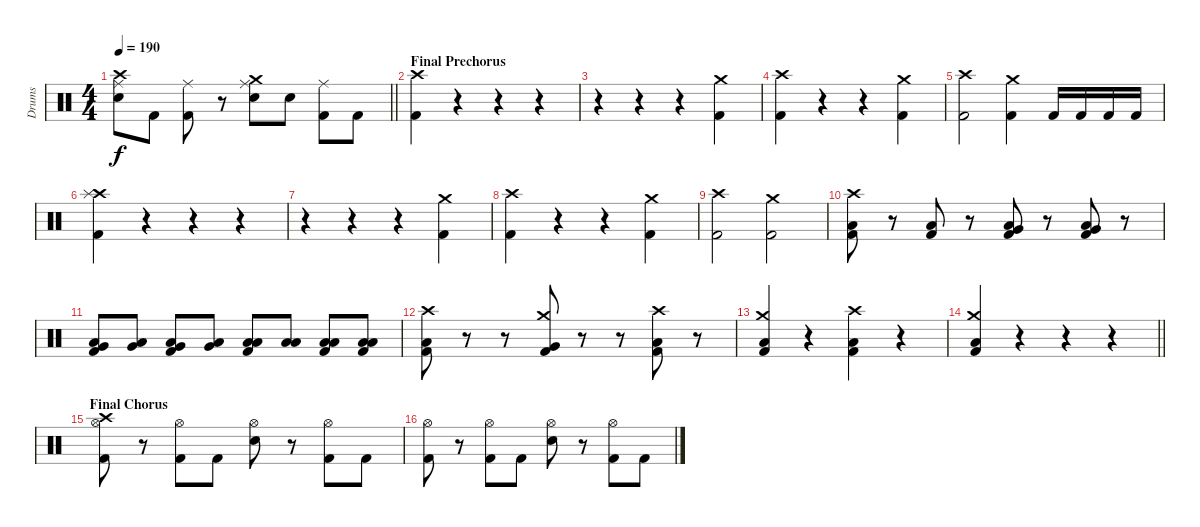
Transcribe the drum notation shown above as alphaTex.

\track ("Drums" "Drums") {instrument percussion}
\staff {score}
\articulation defaults
\ts (4 4)
\tempo 190
\clef neutral
\barLineRight lightlight
\ks c
("Crash high (hit)" "Ride (middle)" "Snare (hit) 2").8{dy f} "Kick (hit) 2".8 ("Ride (middle)" "Kick (hit) 2").8 r.8 ("Crash medium (hit)" "Ride (middle)" "Snare (hit) 2").8 "Snare (hit) 2".8 ("Ride (middle)" "Kick (hit) 2").8 "Kick (hit) 2".8 |
\section ("" "Final Prechorus")
("Crash high (hit)" "Kick (hit) 2").4 r.4 r.4 r.4 |
r.4 r.4 r.4 ("Crash medium (hit)" "Kick (hit) 2").4 |
("Crash high (hit)" "Kick (hit) 2").4 r.4 r.4 ("Crash medium (hit)" "Kick (hit) 2").4 |
("Crash high (hit)" "Kick (hit) 2").2 ("Crash medium (hit)" "Kick (hit) 2").4 "Kick (hit) 2".16 "Kick (hit) 2".16 "Kick (hit) 2".16 "Kick (hit) 2".16 |
("Crash high (hit)" "Splash (hit)" "Kick (hit) 2").4 r.4 r.4 r.4 |
r.4 r.4 r.4 ("Crash medium (hit)" "Kick (hit) 2").4 |
("Crash high (hit)" "Kick (hit) 2").4 r.4 r.4 ("Crash medium (hit)" "Kick (hit) 2").4 |
("Crash high (hit)" "Kick (hit) 2").2 ("Crash medium (hit)" "Kick (hit) 2").2 |
("Crash high (hit)" "Low Floor Tom (hit)" "Kick (hit) 2").8 r.8 ("Low Floor Tom (hit)" "Kick (hit) 2").8 r.8 ("Very Low Tom (hit)" "Low Floor Tom (hit)" "Kick (hit) 2").8 r.8 ("Very Low Tom (hit)" "Low Floor Tom (hit)" "Kick (hit) 2").8 r.8 |
("Very Low Tom (hit)" "Low Floor Tom (hit)" "Kick (hit) 2").8 ("Very Low Tom (hit)" "Low Floor Tom (hit)").8 ("Very Low Tom (hit)" "Low Floor Tom (hit)" "Kick (hit) 2").8 ("Very Low Tom (hit)" "Low Floor Tom (hit)").8 ("Low Tom (hit)" "Low Floor Tom (hit)" "Kick (hit) 2").8 ("Low Tom (hit)" "Low Floor Tom (hit)").8 ("Low Tom (hit)" "Low Floor Tom (hit)" "Kick (hit) 2").8 ("Low Tom (hit)" "Low Floor Tom (hit)" "Kick (hit) 2").8 |
("Crash high (hit)" "Low Tom (hit)" "Kick (hit) 2").8 r.8 r.8 ("Crash medium (hit)" "Very Low Tom (hit)" "Kick (hit) 2").8 r.8 r.8 ("Crash high (hit)" "Low Floor Tom (hit)" "Kick (hit) 2").8 r.8 |
("Crash medium (hit)" "Low Floor Tom (hit)" "Kick (hit) 2").4 r.4 ("Crash high (hit)" "Low Floor Tom (hit)" "Kick (hit) 2").4 r.4 |
\barLineRight lightlight
("Crash medium (hit)" "Low Floor Tom (hit)" "Kick (hit) 2").4 r.4 r.4 r.4 |
\section ("" "Final Chorus")
("Crash high (hit)" "Hi-Hat (open)" "Kick (hit) 2").8 r.8 ("Hi-Hat (open)" "Kick (hit) 2").8 "Kick (hit) 2".8 ("Hi-Hat (open)" "Snare (hit) 2").8 r.8 ("Hi-Hat (open)" "Kick (hit) 2").8 "Kick (hit) 2".8 |
("Hi-Hat (open)" "Kick (hit) 2").8 r.8 ("Hi-Hat (open)" "Kick (hit) 2").8 "Kick (hit) 2".8 ("Hi-Hat (open)" "Snare (hit) 2").8 r.8 ("Hi-Hat (open)" "Kick (hit) 2").8 "Kick (hit) 2".8
